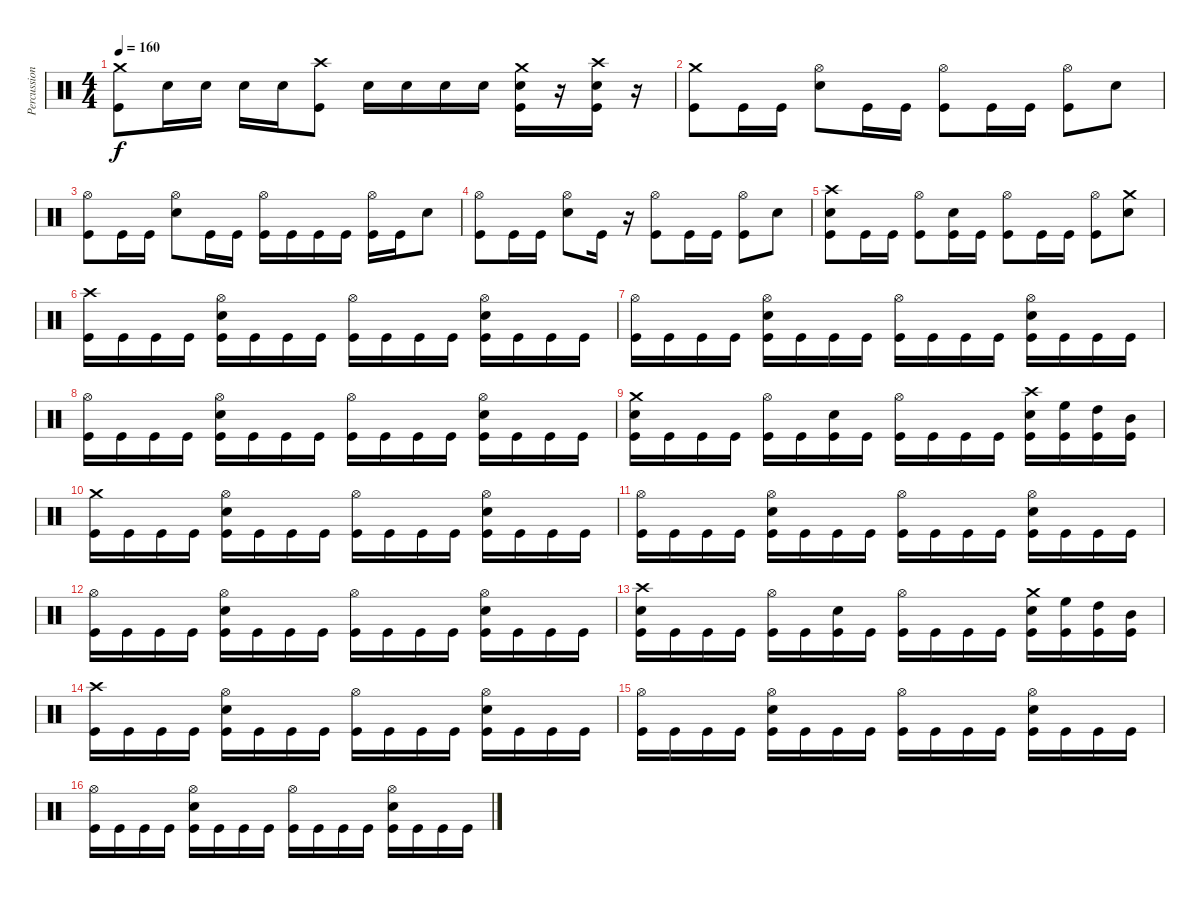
\track ("Percussion" "Percussion") {instrument percussion}
\staff {score}
\articulation defaults
\ts (4 4)
\tempo 160
\clef neutral
\ks c
("Crash medium (hit)" "Kick (hit)").8{dy f} "Snare (hit) 2".16 "Snare (hit) 2".16 "Snare (hit) 2".16 "Snare (hit) 2".16 ("Crash high (hit)" "Kick (hit)").8 "Snare (hit) 2".16 "Snare (hit) 2".16 "Snare (hit) 2".16 "Snare (hit) 2".16 ("Crash medium (hit)" "Snare (hit) 2" "Kick (hit)").16 r.16 ("Crash high (hit)" "Snare (hit) 2" "Kick (hit)").16 r.16 |
("Crash medium (hit)" "Kick (hit)").8 "Kick (hit)".16 "Kick (hit)".16 ("Hi-Hat (open)" "Snare (hit) 2").8 "Kick (hit)".16 "Kick (hit)".16 ("Hi-Hat (open)" "Kick (hit)").8 "Kick (hit)".16 "Kick (hit)".16 ("Hi-Hat (open)" "Kick (hit)").8 "Snare (hit) 2".8 |
("Hi-Hat (open)" "Kick (hit)").8 "Kick (hit)".16 "Kick (hit)".16 ("Hi-Hat (open)" "Snare (hit) 2").8 "Kick (hit)".16 "Kick (hit)".16 ("Hi-Hat (open)" "Kick (hit)").16 "Kick (hit)".16 "Kick (hit)".16 "Kick (hit)".16 ("Hi-Hat (open)" "Kick (hit)").16 "Kick (hit)".16 "Snare (hit) 2".8 |
("Hi-Hat (open)" "Kick (hit)").8 "Kick (hit)".16 "Kick (hit)".16 ("Hi-Hat (open)" "Snare (hit) 2").8 "Kick (hit)".16 r.16 ("Hi-Hat (open)" "Kick (hit)").8 "Kick (hit)".16 "Kick (hit)".16 ("Hi-Hat (open)" "Kick (hit)").8 "Snare (hit) 2".8 |
("Crash high (hit)" "Snare (hit) 2" "Kick (hit)").8 "Kick (hit)".16 "Kick (hit)".16 ("Hi-Hat (open)" "Kick (hit)").8 ("Snare (hit) 2" "Kick (hit)").16 "Kick (hit)".16 ("Hi-Hat (open)" "Kick (hit)").8 "Kick (hit)".16 "Kick (hit)".16 ("Hi-Hat (open)" "Kick (hit)").8 ("Crash medium (hit)" "Snare (hit) 2").8 |
("Crash high (hit)" "Kick (hit)").16 "Kick (hit)".16 "Kick (hit)".16 "Kick (hit)".16 ("Hi-Hat (open)" "Snare (hit) 2" "Kick (hit)").16 "Kick (hit)".16 "Kick (hit)".16 "Kick (hit)".16 ("Hi-Hat (open)" "Kick (hit)").16 "Kick (hit)".16 "Kick (hit)".16 "Kick (hit)".16 ("Hi-Hat (open)" "Snare (hit) 2" "Kick (hit)").16 "Kick (hit)".16 "Kick (hit)".16 "Kick (hit)".16 |
("Hi-Hat (open)" "Kick (hit)").16 "Kick (hit)".16 "Kick (hit)".16 "Kick (hit)".16 ("Hi-Hat (open)" "Snare (hit) 2" "Kick (hit)").16 "Kick (hit)".16 "Kick (hit)".16 "Kick (hit)".16 ("Hi-Hat (open)" "Kick (hit)").16 "Kick (hit)".16 "Kick (hit)".16 "Kick (hit)".16 ("Hi-Hat (open)" "Snare (hit) 2" "Kick (hit)").16 "Kick (hit)".16 "Kick (hit)".16 "Kick (hit)".16 |
("Hi-Hat (open)" "Kick (hit)").16 "Kick (hit)".16 "Kick (hit)".16 "Kick (hit)".16 ("Hi-Hat (open)" "Snare (hit) 2" "Kick (hit)").16 "Kick (hit)".16 "Kick (hit)".16 "Kick (hit)".16 ("Hi-Hat (open)" "Kick (hit)").16 "Kick (hit)".16 "Kick (hit)".16 "Kick (hit)".16 ("Hi-Hat (open)" "Snare (hit) 2" "Kick (hit)").16 "Kick (hit)".16 "Kick (hit)".16 "Kick (hit)".16 |
("Crash medium (hit)" "Snare (hit) 2" "Kick (hit)").16 "Kick (hit)".16 "Kick (hit)".16 "Kick (hit)".16 ("Hi-Hat (open)" "Kick (hit)").16 "Kick (hit)".16 ("Snare (hit) 2" "Kick (hit)").16 "Kick (hit)".16 ("Hi-Hat (open)" "Kick (hit)").16 "Kick (hit)".16 "Kick (hit)".16 "Kick (hit)".16 ("Crash high (hit)" "Snare (hit) 2" "Kick (hit)").16 ("High Floor Tom (hit)" "Kick (hit)").16 ("High Tom (hit)" "Kick (hit)").16 ("Mid Tom (hit)" "Kick (hit)").16 |
("Crash medium (hit)" "Kick (hit)").16 "Kick (hit)".16 "Kick (hit)".16 "Kick (hit)".16 ("Hi-Hat (open)" "Snare (hit) 2" "Kick (hit)").16 "Kick (hit)".16 "Kick (hit)".16 "Kick (hit)".16 ("Hi-Hat (open)" "Kick (hit)").16 "Kick (hit)".16 "Kick (hit)".16 "Kick (hit)".16 ("Hi-Hat (open)" "Snare (hit) 2" "Kick (hit)").16 "Kick (hit)".16 "Kick (hit)".16 "Kick (hit)".16 |
("Hi-Hat (open)" "Kick (hit)").16 "Kick (hit)".16 "Kick (hit)".16 "Kick (hit)".16 ("Hi-Hat (open)" "Snare (hit) 2" "Kick (hit)").16 "Kick (hit)".16 "Kick (hit)".16 "Kick (hit)".16 ("Hi-Hat (open)" "Kick (hit)").16 "Kick (hit)".16 "Kick (hit)".16 "Kick (hit)".16 ("Hi-Hat (open)" "Snare (hit) 2" "Kick (hit)").16 "Kick (hit)".16 "Kick (hit)".16 "Kick (hit)".16 |
("Hi-Hat (open)" "Kick (hit)").16 "Kick (hit)".16 "Kick (hit)".16 "Kick (hit)".16 ("Hi-Hat (open)" "Snare (hit) 2" "Kick (hit)").16 "Kick (hit)".16 "Kick (hit)".16 "Kick (hit)".16 ("Hi-Hat (open)" "Kick (hit)").16 "Kick (hit)".16 "Kick (hit)".16 "Kick (hit)".16 ("Hi-Hat (open)" "Snare (hit) 2" "Kick (hit)").16 "Kick (hit)".16 "Kick (hit)".16 "Kick (hit)".16 |
("Crash high (hit)" "Snare (hit) 2" "Kick (hit)").16 "Kick (hit)".16 "Kick (hit)".16 "Kick (hit)".16 ("Hi-Hat (open)" "Kick (hit)").16 "Kick (hit)".16 ("Snare (hit) 2" "Kick (hit)").16 "Kick (hit)".16 ("Hi-Hat (open)" "Kick (hit)").16 "Kick (hit)".16 "Kick (hit)".16 "Kick (hit)".16 ("Crash medium (hit)" "Snare (hit) 2" "Kick (hit)").16 ("High Floor Tom (hit)" "Kick (hit)").16 ("High Tom (hit)" "Kick (hit)").16 ("Mid Tom (hit)" "Kick (hit)").16 |
("Crash high (hit)" "Kick (hit)").16 "Kick (hit)".16 "Kick (hit)".16 "Kick (hit)".16 ("Hi-Hat (open)" "Snare (hit) 2" "Kick (hit)").16 "Kick (hit)".16 "Kick (hit)".16 "Kick (hit)".16 ("Hi-Hat (open)" "Kick (hit)").16 "Kick (hit)".16 "Kick (hit)".16 "Kick (hit)".16 ("Hi-Hat (open)" "Snare (hit) 2" "Kick (hit)").16 "Kick (hit)".16 "Kick (hit)".16 "Kick (hit)".16 |
("Hi-Hat (open)" "Kick (hit)").16 "Kick (hit)".16 "Kick (hit)".16 "Kick (hit)".16 ("Hi-Hat (open)" "Snare (hit) 2" "Kick (hit)").16 "Kick (hit)".16 "Kick (hit)".16 "Kick (hit)".16 ("Hi-Hat (open)" "Kick (hit)").16 "Kick (hit)".16 "Kick (hit)".16 "Kick (hit)".16 ("Hi-Hat (open)" "Snare (hit) 2" "Kick (hit)").16 "Kick (hit)".16 "Kick (hit)".16 "Kick (hit)".16 |
("Hi-Hat (open)" "Kick (hit)").16 "Kick (hit)".16 "Kick (hit)".16 "Kick (hit)".16 ("Hi-Hat (open)" "Snare (hit) 2" "Kick (hit)").16 "Kick (hit)".16 "Kick (hit)".16 "Kick (hit)".16 ("Hi-Hat (open)" "Kick (hit)").16 "Kick (hit)".16 "Kick (hit)".16 "Kick (hit)".16 ("Hi-Hat (open)" "Snare (hit) 2" "Kick (hit)").16 "Kick (hit)".16 "Kick (hit)".16 "Kick (hit)".16
